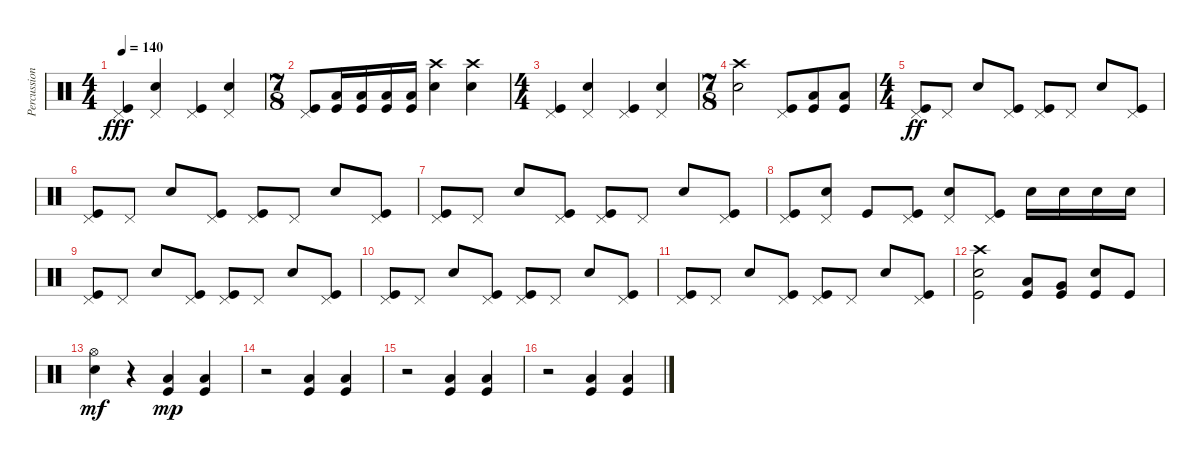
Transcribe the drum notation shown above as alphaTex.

\track ("Percussion" "Percussion") {instrument percussion}
\staff {score}
\articulation defaults
\ts (4 4)
\tempo 140
\clef neutral
\ks c
("Pedal Hi-Hat (hit)" "Kick (hit)").4{dy fff} ("Pedal Hi-Hat (hit)" "Snare (hit) 2").4 ("Pedal Hi-Hat (hit)" "Kick (hit)").4 ("Pedal Hi-Hat (hit)" "Snare (hit) 2").4 |
\ts (7 8)
("Pedal Hi-Hat (hit)" "Kick (hit)").8 ("Kick (hit)" "Low Tom (hit)").16 ("Kick (hit)" "Low Tom (hit)").16 ("Kick (hit)" "Low Tom (hit)").16 ("Kick (hit)" "Low Tom (hit)").16 ("Crash high (hit)" "Snare (hit) 2").4 ("Crash high (hit)" "Snare (hit) 2").4 |
\ts (4 4)
("Pedal Hi-Hat (hit)" "Kick (hit)").4 ("Pedal Hi-Hat (hit)" "Snare (hit) 2").4 ("Pedal Hi-Hat (hit)" "Kick (hit)").4 ("Pedal Hi-Hat (hit)" "Snare (hit) 2").4 |
\ts (7 8)
("Crash high (hit)" "Snare (hit) 2").2 ("Pedal Hi-Hat (hit)" "Kick (hit)").8 ("Kick (hit)" "Low Tom (hit)").8 ("Kick (hit)" "Low Tom (hit)").8 |
\ts (4 4)
("Pedal Hi-Hat (hit)" "Kick (hit)").8{dy ff} "Pedal Hi-Hat (hit)".8 "Snare (hit) 2".8 ("Pedal Hi-Hat (hit)" "Kick (hit)").8 ("Pedal Hi-Hat (hit)" "Kick (hit)").8 "Pedal Hi-Hat (hit)".8 "Snare (hit) 2".8 ("Pedal Hi-Hat (hit)" "Kick (hit)").8 |
("Pedal Hi-Hat (hit)" "Kick (hit)").8 "Pedal Hi-Hat (hit)".8 "Snare (hit) 2".8 ("Pedal Hi-Hat (hit)" "Kick (hit)").8 ("Pedal Hi-Hat (hit)" "Kick (hit)").8 "Pedal Hi-Hat (hit)".8 "Snare (hit) 2".8 ("Pedal Hi-Hat (hit)" "Kick (hit)").8 |
("Pedal Hi-Hat (hit)" "Kick (hit)").8 "Pedal Hi-Hat (hit)".8 "Snare (hit) 2".8 ("Pedal Hi-Hat (hit)" "Kick (hit)").8 ("Pedal Hi-Hat (hit)" "Kick (hit)").8 "Pedal Hi-Hat (hit)".8 "Snare (hit) 2".8 ("Pedal Hi-Hat (hit)" "Kick (hit)").8 |
("Pedal Hi-Hat (hit)" "Kick (hit)").8 ("Pedal Hi-Hat (hit)" "Snare (hit) 2").8 "Kick (hit)".8 ("Pedal Hi-Hat (hit)" "Kick (hit)").8 ("Pedal Hi-Hat (hit)" "Snare (hit) 2").8 ("Pedal Hi-Hat (hit)" "Kick (hit)").8 "Snare (hit) 2".16 "Snare (hit) 2".16 "Snare (hit) 2".16 "Snare (hit) 2".16 |
("Pedal Hi-Hat (hit)" "Kick (hit)").8 "Pedal Hi-Hat (hit)".8 "Snare (hit) 2".8 ("Pedal Hi-Hat (hit)" "Kick (hit)").8 ("Pedal Hi-Hat (hit)" "Kick (hit)").8 "Pedal Hi-Hat (hit)".8 "Snare (hit) 2".8 ("Pedal Hi-Hat (hit)" "Kick (hit)").8 |
("Pedal Hi-Hat (hit)" "Kick (hit)").8 "Pedal Hi-Hat (hit)".8 "Snare (hit) 2".8 ("Pedal Hi-Hat (hit)" "Kick (hit)").8 ("Pedal Hi-Hat (hit)" "Kick (hit)").8 "Pedal Hi-Hat (hit)".8 "Snare (hit) 2".8 ("Pedal Hi-Hat (hit)" "Kick (hit)").8 |
("Pedal Hi-Hat (hit)" "Kick (hit)").8 "Pedal Hi-Hat (hit)".8 "Snare (hit) 2".8 ("Pedal Hi-Hat (hit)" "Kick (hit)").8 ("Pedal Hi-Hat (hit)" "Kick (hit)").8 "Pedal Hi-Hat (hit)".8 "Snare (hit) 2".8 ("Pedal Hi-Hat (hit)" "Kick (hit)").8 |
("Crash high (hit)" "Kick (hit)" "Snare (hit) 2").2 ("Kick (hit)" "Low Tom (hit)").8 ("Kick (hit)" "Very Low Tom (hit)").8 ("Kick (hit)" "Snare (hit) 2").8 "Kick (hit)".8 |
("Hi-Hat (open)" "Snare (hit) 2").4{dy mf} r.4 ("Kick (hit)" "Low Tom (hit)").4{dy mp} ("Kick (hit)" "Low Tom (hit)").4 |
r.2 ("Kick (hit)" "Low Tom (hit)").4 ("Kick (hit)" "Low Tom (hit)").4 |
r.2 ("Kick (hit)" "Low Tom (hit)").4 ("Kick (hit)" "Low Tom (hit)").4 |
r.2 ("Kick (hit)" "Low Tom (hit)").4 ("Kick (hit)" "Low Tom (hit)").4
